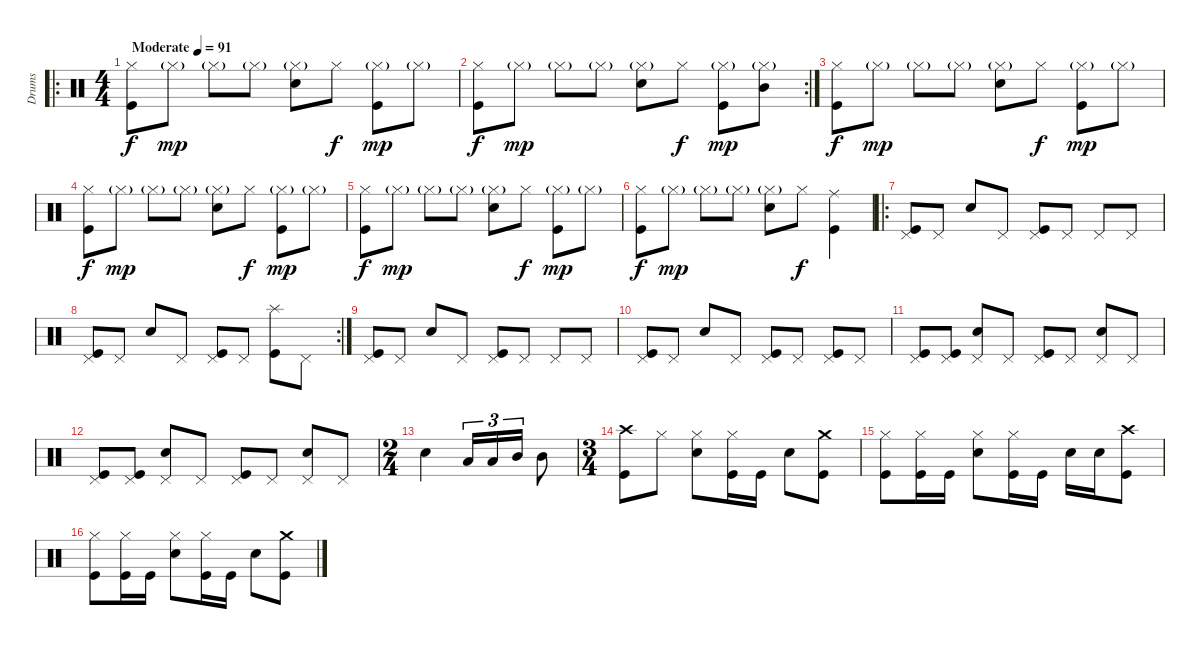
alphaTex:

\track ("Drums" "Drums") {instrument percussion}
\staff {score}
\articulation defaults
\ro
\ts (4 4)
\tempo (91 "Moderate")
\clef neutral
\ks c
("Hi-Hat (closed)" "Kick (hit)").8{dy f} "Hi-Hat (closed)"{g}.8{dy mp} "Hi-Hat (closed)"{g}.8 "Hi-Hat (closed)"{g}.8 ("Hi-Hat (closed)"{g} "Snare (hit) 2").8 "Hi-Hat (closed)".8{dy f} ("Hi-Hat (closed)"{g} "Kick (hit)").8{dy mp} "Hi-Hat (closed)"{g}.8 |
\rc 2
("Hi-Hat (closed)" "Kick (hit)").8{dy f} "Hi-Hat (closed)"{g}.8{dy mp} "Hi-Hat (closed)"{g}.8 "Hi-Hat (closed)"{g}.8 ("Hi-Hat (closed)"{g} "Snare (hit) 2").8 "Hi-Hat (closed)".8{dy f} ("Hi-Hat (closed)"{g} "Kick (hit)").8{dy mp} ("Hi-Hat (closed)"{g} "Mid Tom (hit)").8 |
("Hi-Hat (closed)" "Kick (hit)").8{dy f} "Hi-Hat (closed)"{g}.8{dy mp} "Hi-Hat (closed)"{g}.8 "Hi-Hat (closed)"{g}.8 ("Hi-Hat (closed)"{g} "Snare (hit) 2").8 "Hi-Hat (closed)".8{dy f} ("Hi-Hat (closed)"{g} "Kick (hit)").8{dy mp} "Hi-Hat (closed)"{g}.8 |
("Hi-Hat (closed)" "Kick (hit)").8{dy f} "Hi-Hat (closed)"{g}.8{dy mp} "Hi-Hat (closed)"{g}.8 "Hi-Hat (closed)"{g}.8 ("Hi-Hat (closed)"{g} "Snare (hit) 2").8 "Hi-Hat (closed)".8{dy f} ("Hi-Hat (closed)"{g} "Kick (hit)").8{dy mp} "Hi-Hat (closed)"{g}.8 |
("Hi-Hat (closed)" "Kick (hit)").8{dy f} "Hi-Hat (closed)"{g}.8{dy mp} "Hi-Hat (closed)"{g}.8 "Hi-Hat (closed)"{g}.8 ("Hi-Hat (closed)"{g} "Snare (hit) 2").8 "Hi-Hat (closed)".8{dy f} ("Hi-Hat (closed)"{g} "Kick (hit)").8{dy mp} "Hi-Hat (closed)"{g}.8 |
("Hi-Hat (closed)" "Kick (hit)").8{dy f} "Hi-Hat (closed)"{g}.8{dy mp} "Hi-Hat (closed)"{g}.8 "Hi-Hat (closed)"{g}.8 ("Hi-Hat (closed)"{g} "Snare (hit) 2").8 "Hi-Hat (closed)".8{dy f} ("Ride (middle)" "Kick (hit)").4 |
\ro
("Pedal Hi-Hat (hit)" "Kick (hit)").8 "Pedal Hi-Hat (hit)".8 "Snare (hit) 2".8 "Pedal Hi-Hat (hit)".8 ("Pedal Hi-Hat (hit)" "Kick (hit)").8 "Pedal Hi-Hat (hit)".8 "Pedal Hi-Hat (hit)".8 "Pedal Hi-Hat (hit)".8 |
\rc 2
("Pedal Hi-Hat (hit)" "Kick (hit)").8 "Pedal Hi-Hat (hit)".8 "Snare (hit) 2".8 "Pedal Hi-Hat (hit)".8 ("Pedal Hi-Hat (hit)" "Kick (hit)").8 "Pedal Hi-Hat (hit)".8 ("Splash (hit)" "Kick (hit)").8 "Pedal Hi-Hat (hit)".8 |
("Pedal Hi-Hat (hit)" "Kick (hit)").8 "Pedal Hi-Hat (hit)".8 "Snare (hit) 2".8 "Pedal Hi-Hat (hit)".8 ("Pedal Hi-Hat (hit)" "Kick (hit)").8 "Pedal Hi-Hat (hit)".8 "Pedal Hi-Hat (hit)".8 "Pedal Hi-Hat (hit)".8 |
("Pedal Hi-Hat (hit)" "Kick (hit)").8 "Pedal Hi-Hat (hit)".8 "Snare (hit) 2".8 "Pedal Hi-Hat (hit)".8 ("Pedal Hi-Hat (hit)" "Kick (hit)").8 "Pedal Hi-Hat (hit)".8 ("Pedal Hi-Hat (hit)" "Kick (hit)").8 "Pedal Hi-Hat (hit)".8 |
("Pedal Hi-Hat (hit)" "Kick (hit)").8 ("Pedal Hi-Hat (hit)" "Kick (hit)").8 ("Pedal Hi-Hat (hit)" "Snare (hit) 2").8 "Pedal Hi-Hat (hit)".8 ("Pedal Hi-Hat (hit)" "Kick (hit)").8 "Pedal Hi-Hat (hit)".8 ("Pedal Hi-Hat (hit)" "Snare (hit) 2").8 "Pedal Hi-Hat (hit)".8 |
("Pedal Hi-Hat (hit)" "Kick (hit)").8 ("Pedal Hi-Hat (hit)" "Kick (hit)").8 ("Pedal Hi-Hat (hit)" "Snare (hit) 2").8 "Pedal Hi-Hat (hit)".8 ("Pedal Hi-Hat (hit)" "Kick (hit)").8 "Pedal Hi-Hat (hit)".8 ("Pedal Hi-Hat (hit)" "Snare (hit) 2").8 "Pedal Hi-Hat (hit)".8 |
\ts (2 4)
"Snare (hit) 2".4 "Low Tom (hit)".16{tu (3 2)} "Low Tom (hit)".16{tu (3 2)} "Mid Tom (hit)".16{tu (3 2)} "Mid Tom (hit)".8 |
\ts (3 4)
("Crash high (hit)" "Kick (hit)").8 "Hi-Hat (closed)".8 ("Hi-Hat (closed)" "Snare (hit) 2").8 ("Hi-Hat (closed)" "Kick (hit)").16 "Kick (hit)".16 "Snare (hit) 2".8 ("Crash medium (hit)" "Kick (hit)").8 |
("Hi-Hat (closed)" "Kick (hit)").8 ("Hi-Hat (closed)" "Kick (hit)").16 "Kick (hit)".16 ("Hi-Hat (closed)" "Snare (hit) 2").8 ("Hi-Hat (closed)" "Kick (hit)").16 "Kick (hit)".16 "Snare (hit) 2".16 "Snare (hit) 2".16 ("Crash high (hit)" "Kick (hit)").8 |
("Hi-Hat (closed)" "Kick (hit)").8 ("Hi-Hat (closed)" "Kick (hit)").16 "Kick (hit)".16 ("Hi-Hat (closed)" "Snare (hit) 2").8 ("Hi-Hat (closed)" "Kick (hit)").16 "Kick (hit)".16 "Snare (hit) 2".8 ("Crash medium (hit)" "Kick (hit)").8
